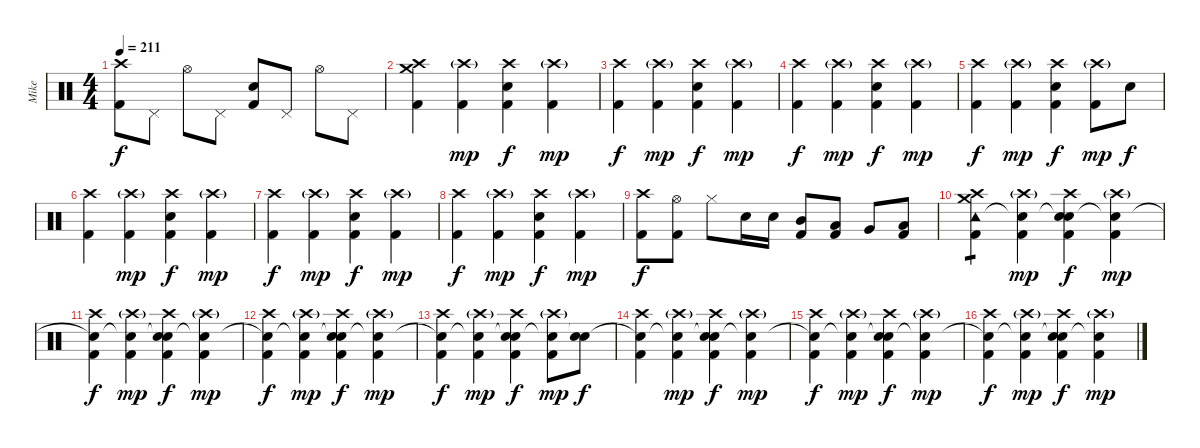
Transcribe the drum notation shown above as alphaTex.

\track ("Mike" "Mike") {instrument percussion}
\staff {score}
\articulation defaults
\ts (4 4)
\tempo 211
\clef neutral
\ks c
("Crash high (hit)" "Kick (hit) 2").8{dy f} "Pedal Hi-Hat (hit)".8 "Hi-Hat (open)".8 "Pedal Hi-Hat (hit)".8 ("Electric Snare (hit)" "Kick (hit) 2").8 "Pedal Hi-Hat (hit)".8 "Hi-Hat (open)".8 "Pedal Hi-Hat (hit)".8 |
("Crash high (hit)" "Crash medium (hit)" "Kick (hit) 2").4 ("Crash high (hit)"{g} "Kick (hit) 2").4{dy mp} ("Crash high (hit)" "Electric Snare (hit)" "Kick (hit) 2").4{dy f} ("Crash high (hit)"{g} "Kick (hit) 2").4{dy mp} |
("Crash high (hit)" "Kick (hit) 2").4{dy f} ("Crash high (hit)"{g} "Kick (hit) 2").4{dy mp} ("Crash high (hit)" "Electric Snare (hit)" "Kick (hit) 2").4{dy f} ("Crash high (hit)"{g} "Kick (hit) 2").4{dy mp} |
("Crash high (hit)" "Kick (hit) 2").4{dy f} ("Crash high (hit)"{g} "Kick (hit) 2").4{dy mp} ("Crash high (hit)" "Electric Snare (hit)" "Kick (hit) 2").4{dy f} ("Crash high (hit)"{g} "Kick (hit) 2").4{dy mp} |
("Crash high (hit)" "Kick (hit) 2").4{dy f} ("Crash high (hit)"{g} "Kick (hit) 2").4{dy mp} ("Crash high (hit)" "Electric Snare (hit)" "Kick (hit) 2").4{dy f} ("Crash high (hit)"{g} "Kick (hit) 2").8{dy mp} "Electric Snare (hit)".8{dy f} |
("Crash high (hit)" "Kick (hit) 2").4 ("Crash high (hit)"{g} "Kick (hit) 2").4{dy mp} ("Crash high (hit)" "Electric Snare (hit)" "Kick (hit) 2").4{dy f} ("Crash high (hit)"{g} "Kick (hit) 2").4{dy mp} |
("Crash high (hit)" "Kick (hit) 2").4{dy f} ("Crash high (hit)"{g} "Kick (hit) 2").4{dy mp} ("Crash high (hit)" "Electric Snare (hit)" "Kick (hit) 2").4{dy f} ("Crash high (hit)"{g} "Kick (hit) 2").4{dy mp} |
("Crash high (hit)" "Kick (hit) 2").4{dy f} ("Crash high (hit)"{g} "Kick (hit) 2").4{dy mp} ("Crash high (hit)" "Electric Snare (hit)" "Kick (hit) 2").4{dy f} ("Crash high (hit)"{g} "Kick (hit) 2").4{dy mp} |
("Crash high (hit)" "Kick (hit) 2").8{dy f} ("Hi-Hat (open)" "Kick (hit) 2").8 "Hi-Hat (closed)".8 "Electric Snare (hit)".16 "Electric Snare (hit)".16 ("Mid Tom (hit)" "Kick (hit) 2").8 ("Low Tom (hit)" "Kick (hit) 2").8 "Very Low Tom (hit)".8 ("Low Tom (hit)" "Kick (hit) 2").8 |
("Tambourine (hit)" "Crash high (hit)" "Crash medium (hit)" "Kick (hit) 2").4{tp 1} ("Snare (hit)"{t} "Crash high (hit)"{g} "Kick (hit) 2").4{dy mp} ("Snare (hit)"{t} "Crash high (hit)" "Electric Snare (hit)" "Kick (hit) 2").4{dy f} ("Snare (hit)"{t} "Crash high (hit)"{g} "Kick (hit) 2").4{dy mp} |
("Snare (hit)"{t} "Crash high (hit)" "Kick (hit) 2").4{dy f} ("Snare (hit)"{t} "Crash high (hit)"{g} "Kick (hit) 2").4{dy mp} ("Snare (hit)"{t} "Crash high (hit)" "Electric Snare (hit)" "Kick (hit) 2").4{dy f} ("Snare (hit)"{t} "Crash high (hit)"{g} "Kick (hit) 2").4{dy mp} |
("Snare (hit)"{t} "Crash high (hit)" "Kick (hit) 2").4{dy f} ("Snare (hit)"{t} "Crash high (hit)"{g} "Kick (hit) 2").4{dy mp} ("Snare (hit)"{t} "Crash high (hit)" "Electric Snare (hit)" "Kick (hit) 2").4{dy f} ("Snare (hit)"{t} "Crash high (hit)"{g} "Kick (hit) 2").4{dy mp} |
("Snare (hit)"{t} "Crash high (hit)" "Kick (hit) 2").4{dy f} ("Snare (hit)"{t} "Crash high (hit)"{g} "Kick (hit) 2").4{dy mp} ("Snare (hit)"{t} "Crash high (hit)" "Electric Snare (hit)" "Kick (hit) 2").4{dy f} ("Snare (hit)"{t} "Crash high (hit)"{g} "Kick (hit) 2").8{dy mp} ("Snare (hit)"{t} "Electric Snare (hit)").8{dy f} |
("Snare (hit)"{t} "Crash high (hit)" "Kick (hit) 2").4 ("Snare (hit)"{t} "Crash high (hit)"{g} "Kick (hit) 2").4{dy mp} ("Snare (hit)"{t} "Crash high (hit)" "Electric Snare (hit)" "Kick (hit) 2").4{dy f} ("Snare (hit)"{t} "Crash high (hit)"{g} "Kick (hit) 2").4{dy mp} |
("Snare (hit)"{t} "Crash high (hit)" "Kick (hit) 2").4{dy f} ("Snare (hit)"{t} "Crash high (hit)"{g} "Kick (hit) 2").4{dy mp} ("Snare (hit)"{t} "Crash high (hit)" "Electric Snare (hit)" "Kick (hit) 2").4{dy f} ("Snare (hit)"{t} "Crash high (hit)"{g} "Kick (hit) 2").4{dy mp} |
("Snare (hit)"{t} "Crash high (hit)" "Kick (hit) 2").4{dy f} ("Snare (hit)"{t} "Crash high (hit)"{g} "Kick (hit) 2").4{dy mp} ("Snare (hit)"{t} "Crash high (hit)" "Electric Snare (hit)" "Kick (hit) 2").4{dy f} ("Snare (hit)"{t} "Crash high (hit)"{g} "Kick (hit) 2").4{dy mp}
